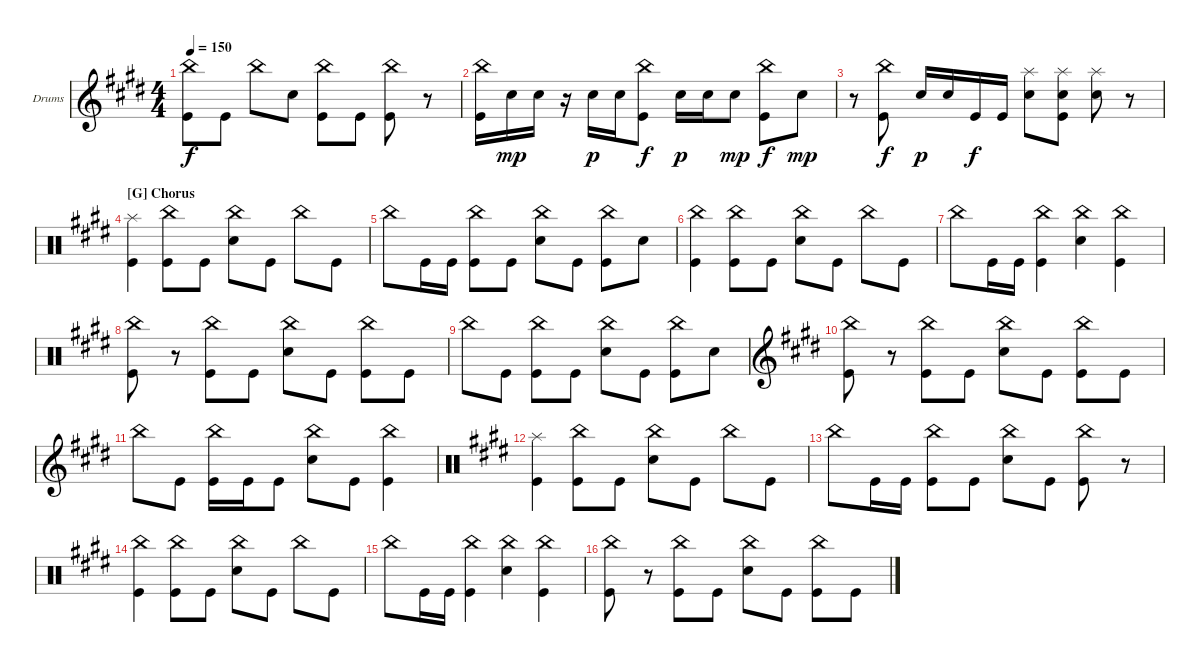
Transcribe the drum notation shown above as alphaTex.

\bracketExtendMode groupsimilarinstruments
\firstSystemTrackNameOrientation horizontal
\otherSystemsTrackNameOrientation horizontal
\track ("Drums" "Drums") {instrument percussion}
\staff {score}
\articulation defaults
\ts (4 4)
\tempo 150
\clef g2
\ks e
("Kick (hit)" "China (hit)").8{dy f} "Kick (hit)".8 "China (hit)".8 "Snare (hit) 2".8 ("Kick (hit)" "China (hit)").8 "Kick (hit)".8 ("Kick (hit)" "China (hit)").8 r.8 |
("Kick (hit)" "China (hit)").16 "Snare (hit) 2".16{dy mp} "Snare (hit) 2".16 r.16 "Snare (hit) 2".16{dy p} "Snare (hit) 2".16 ("Kick (hit)" "China (hit)").8{dy f} "Snare (hit) 2".16{dy p} "Snare (hit) 2".16 "Snare (hit) 2".8{dy mp} ("Kick (hit)" "China (hit)").8{dy f} "Snare (hit) 2".8{dy mp} |
r.8 ("Kick (hit)" "China (hit)").8{dy f} "Snare (hit) 2".16{dy p} "Snare (hit) 2".16 "Kick (hit)".16{dy f} "Kick (hit)".16 ("Snare (hit) 2" "Splash (hit)").8 ("Snare (hit) 2" "Kick (hit)" "Splash (hit)").8 ("Snare (hit) 2" "Splash (hit)").8 r.8 |
\section ("G" "Chorus")
\clef neutral
("Kick (hit)" "Splash (hit)").4 ("Kick (hit)" "China (hit)").8 "Kick (hit)".8 ("Snare (hit) 2" "China (hit)").8 "Kick (hit)".8 "China (hit)".8 "Kick (hit)".8 |
"China (hit)".8 "Kick (hit)".16 "Kick (hit)".16 ("Kick (hit)" "China (hit)").8 "Kick (hit)".8 ("Snare (hit) 2" "China (hit)").8 "Kick (hit)".8 ("Kick (hit)" "China (hit)").8 "Snare (hit) 2".8 |
("Kick (hit)" "China (hit)").4 ("Kick (hit)" "China (hit)").8 "Kick (hit)".8 ("Snare (hit) 2" "China (hit)").8 "Kick (hit)".8 "China (hit)".8 "Kick (hit)".8 |
"China (hit)".8 "Kick (hit)".16 "Kick (hit)".16 ("Kick (hit)" "China (hit)").4 ("Snare (hit) 2" "China (hit)").4 ("Kick (hit)" "China (hit)").4 |
("Kick (hit)" "China (hit)").8 r.8 ("Kick (hit)" "China (hit)").8 "Kick (hit)".8 ("Snare (hit) 2" "China (hit)").8 "Kick (hit)".8 ("Kick (hit)" "China (hit)").8 "Kick (hit)".8 |
"China (hit)".8 "Kick (hit)".8 ("Kick (hit)" "China (hit)").8 "Kick (hit)".8 ("Snare (hit) 2" "China (hit)").8 "Kick (hit)".8 ("Kick (hit)" "China (hit)").8 "Snare (hit) 2".8 |
\clef g2
("Kick (hit)" "China (hit)").8 r.8 ("Kick (hit)" "China (hit)").8 "Kick (hit)".8 ("Snare (hit) 2" "China (hit)").8 "Kick (hit)".8 ("Kick (hit)" "China (hit)").8 "Kick (hit)".8 |
"China (hit)".8 "Kick (hit)".8 ("China (hit)" "Kick (hit)").16 "Kick (hit)".16 "Kick (hit)".8 ("China (hit)" "Snare (hit) 2").8 "Kick (hit)".8 ("China (hit)" "Kick (hit)").4 |
\clef neutral
("Kick (hit)" "Splash (hit)").4 ("Kick (hit)" "China (hit)").8 "Kick (hit)".8 ("Snare (hit) 2" "China (hit)").8 "Kick (hit)".8 "China (hit)".8 "Kick (hit)".8 |
"China (hit)".8 "Kick (hit)".16 "Kick (hit)".16 ("Kick (hit)" "China (hit)").8 "Kick (hit)".8 ("Snare (hit) 2" "China (hit)").8 "Kick (hit)".8 ("Kick (hit)" "China (hit)").8 r.8 |
("Kick (hit)" "China (hit)").4 ("Kick (hit)" "China (hit)").8 "Kick (hit)".8 ("Snare (hit) 2" "China (hit)").8 "Kick (hit)".8 "China (hit)".8 "Kick (hit)".8 |
"China (hit)".8 "Kick (hit)".16 "Kick (hit)".16 ("Kick (hit)" "China (hit)").4 ("Snare (hit) 2" "China (hit)").4 ("Kick (hit)" "China (hit)").4 |
("Kick (hit)" "China (hit)").8 r.8 ("Kick (hit)" "China (hit)").8 "Kick (hit)".8 ("Snare (hit) 2" "China (hit)").8 "Kick (hit)".8 ("Kick (hit)" "China (hit)").8 "Kick (hit)".8
